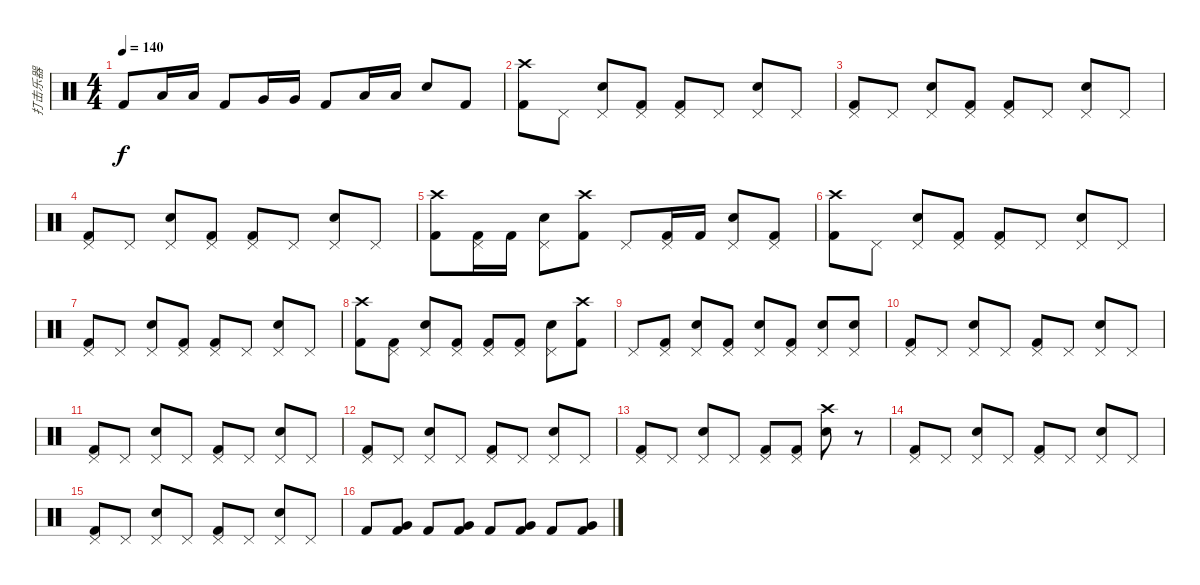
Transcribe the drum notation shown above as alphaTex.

\track ("打击乐器" "打击乐器") {instrument percussion}
\staff {score}
\articulation defaults
\ts (4 4)
\tempo 140
\clef neutral
\ks c "Kick (hit) 2".8{dy f} "Low Tom (hit)".16 "Low Tom (hit)".16 "Kick (hit) 2".8 "Very Low Tom (hit)".16 "Very Low Tom (hit)".16 "Kick (hit) 2".8 "Low Floor Tom (hit)".16 "Low Floor Tom (hit)".16 "Electric Snare (hit)".8 "Kick (hit) 2".8
|
("Crash high (hit)" "Kick (hit) 2").8 "Pedal Hi-Hat (hit)".8 ("Pedal Hi-Hat (hit)" "Electric Snare (hit)").8 ("Pedal Hi-Hat (hit)" "Kick (hit) 2").8 ("Pedal Hi-Hat (hit)" "Kick (hit) 2").8 "Pedal Hi-Hat (hit)".8 ("Pedal Hi-Hat (hit)" "Electric Snare (hit)").8 "Pedal Hi-Hat (hit)".8 |
("Pedal Hi-Hat (hit)" "Kick (hit) 2").8 "Pedal Hi-Hat (hit)".8 ("Pedal Hi-Hat (hit)" "Electric Snare (hit)").8 ("Pedal Hi-Hat (hit)" "Kick (hit) 2").8 ("Pedal Hi-Hat (hit)" "Kick (hit) 2").8 "Pedal Hi-Hat (hit)".8 ("Pedal Hi-Hat (hit)" "Electric Snare (hit)").8 "Pedal Hi-Hat (hit)".8 |
("Pedal Hi-Hat (hit)" "Kick (hit) 2").8 "Pedal Hi-Hat (hit)".8 ("Pedal Hi-Hat (hit)" "Electric Snare (hit)").8 ("Pedal Hi-Hat (hit)" "Kick (hit) 2").8 ("Pedal Hi-Hat (hit)" "Kick (hit) 2").8 "Pedal Hi-Hat (hit)".8 ("Pedal Hi-Hat (hit)" "Electric Snare (hit)").8 "Pedal Hi-Hat (hit)".8 |
("Crash high (hit)" "Kick (hit) 2").8 ("Pedal Hi-Hat (hit)" "Kick (hit) 2").16 "Kick (hit) 2".16 ("Pedal Hi-Hat (hit)" "Electric Snare (hit)").8 ("Crash high (hit)" "Kick (hit) 2").8 "Pedal Hi-Hat (hit)".8 ("Pedal Hi-Hat (hit)" "Kick (hit) 2").16 "Kick (hit) 2".16 ("Pedal Hi-Hat (hit)" "Electric Snare (hit)").8 ("Pedal Hi-Hat (hit)" "Kick (hit) 2").8 |
("Crash high (hit)" "Kick (hit) 2").8 "Pedal Hi-Hat (hit)".8 ("Pedal Hi-Hat (hit)" "Electric Snare (hit)").8 ("Pedal Hi-Hat (hit)" "Kick (hit) 2").8 ("Pedal Hi-Hat (hit)" "Kick (hit) 2").8 "Pedal Hi-Hat (hit)".8 ("Pedal Hi-Hat (hit)" "Electric Snare (hit)").8 "Pedal Hi-Hat (hit)".8 |
("Pedal Hi-Hat (hit)" "Kick (hit) 2").8 "Pedal Hi-Hat (hit)".8 ("Pedal Hi-Hat (hit)" "Electric Snare (hit)").8 ("Pedal Hi-Hat (hit)" "Kick (hit) 2").8 ("Pedal Hi-Hat (hit)" "Kick (hit) 2").8 "Pedal Hi-Hat (hit)".8 ("Pedal Hi-Hat (hit)" "Electric Snare (hit)").8 "Pedal Hi-Hat (hit)".8 |
("Crash high (hit)" "Kick (hit) 2").8 ("Pedal Hi-Hat (hit)" "Kick (hit) 2").8 ("Pedal Hi-Hat (hit)" "Electric Snare (hit)").8 ("Pedal Hi-Hat (hit)" "Kick (hit) 2").8 ("Pedal Hi-Hat (hit)" "Kick (hit) 2").8 ("Pedal Hi-Hat (hit)" "Kick (hit) 2").8 ("Pedal Hi-Hat (hit)" "Electric Snare (hit)").8 ("Crash high (hit)" "Kick (hit) 2").8 |
"Pedal Hi-Hat (hit)".8 ("Pedal Hi-Hat (hit)" "Kick (hit) 2").8 ("Pedal Hi-Hat (hit)" "Electric Snare (hit)").8 ("Pedal Hi-Hat (hit)" "Kick (hit) 2").8 ("Pedal Hi-Hat (hit)" "Electric Snare (hit)").8 ("Pedal Hi-Hat (hit)" "Kick (hit) 2").8 ("Pedal Hi-Hat (hit)" "Electric Snare (hit)").8 ("Pedal Hi-Hat (hit)" "Electric Snare (hit)").8 |
("Pedal Hi-Hat (hit)" "Kick (hit) 2").8 "Pedal Hi-Hat (hit)".8 ("Pedal Hi-Hat (hit)" "Electric Snare (hit)").8 "Pedal Hi-Hat (hit)".8 ("Pedal Hi-Hat (hit)" "Kick (hit) 2").8 "Pedal Hi-Hat (hit)".8 ("Pedal Hi-Hat (hit)" "Electric Snare (hit)").8 "Pedal Hi-Hat (hit)".8 |
("Pedal Hi-Hat (hit)" "Kick (hit) 2").8 "Pedal Hi-Hat (hit)".8 ("Pedal Hi-Hat (hit)" "Electric Snare (hit)").8 "Pedal Hi-Hat (hit)".8 ("Pedal Hi-Hat (hit)" "Kick (hit) 2").8 "Pedal Hi-Hat (hit)".8 ("Pedal Hi-Hat (hit)" "Electric Snare (hit)").8 "Pedal Hi-Hat (hit)".8 |
("Pedal Hi-Hat (hit)" "Kick (hit) 2").8 "Pedal Hi-Hat (hit)".8 ("Pedal Hi-Hat (hit)" "Electric Snare (hit)").8 "Pedal Hi-Hat (hit)".8 ("Pedal Hi-Hat (hit)" "Kick (hit) 2").8 "Pedal Hi-Hat (hit)".8 ("Pedal Hi-Hat (hit)" "Electric Snare (hit)").8 "Pedal Hi-Hat (hit)".8 |
("Pedal Hi-Hat (hit)" "Kick (hit) 2").8 "Pedal Hi-Hat (hit)".8 ("Pedal Hi-Hat (hit)" "Electric Snare (hit)").8 "Pedal Hi-Hat (hit)".8 ("Pedal Hi-Hat (hit)" "Kick (hit) 2").8 ("Pedal Hi-Hat (hit)" "Kick (hit) 2").8 ("Crash high (hit)" "Electric Snare (hit)").8 r.8 |
("Pedal Hi-Hat (hit)" "Kick (hit) 2").8 "Pedal Hi-Hat (hit)".8 ("Pedal Hi-Hat (hit)" "Electric Snare (hit)").8 "Pedal Hi-Hat (hit)".8 ("Pedal Hi-Hat (hit)" "Kick (hit) 2").8 "Pedal Hi-Hat (hit)".8 ("Pedal Hi-Hat (hit)" "Electric Snare (hit)").8 "Pedal Hi-Hat (hit)".8 |
("Pedal Hi-Hat (hit)" "Kick (hit) 2").8 "Pedal Hi-Hat (hit)".8 ("Pedal Hi-Hat (hit)" "Electric Snare (hit)").8 "Pedal Hi-Hat (hit)".8 ("Pedal Hi-Hat (hit)" "Kick (hit) 2").8 "Pedal Hi-Hat (hit)".8 ("Pedal Hi-Hat (hit)" "Electric Snare (hit)").8 "Pedal Hi-Hat (hit)".8 |
"Kick (hit) 2".8 ("Very Low Tom (hit)" "Kick (hit) 2").8 "Kick (hit) 2".8 ("Very Low Tom (hit)" "Kick (hit) 2").8 "Kick (hit) 2".8 ("Very Low Tom (hit)" "Kick (hit) 2").8 "Kick (hit) 2".8 ("Very Low Tom (hit)" "Kick (hit) 2").8
